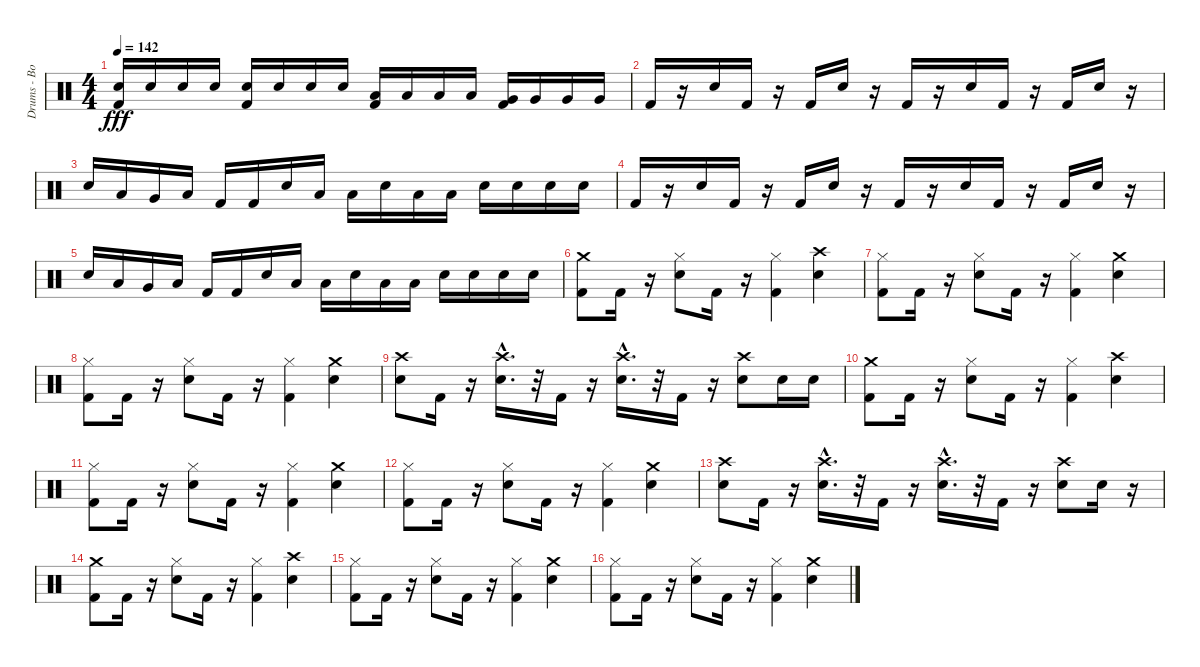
\track ("Drums - Bobby Schayer" "Drums - Bo") {instrument percussion}
\staff {score}
\articulation defaults
\ts (4 4)
\tempo 142
\clef neutral
\ks c
("Electric Snare (hit)" "Kick (hit) 2").16{dy fff} "Electric Snare (hit)".16 "Electric Snare (hit)".16 "Electric Snare (hit)".16 ("Electric Snare (hit)" "Kick (hit) 2").16 "Electric Snare (hit)".16 "Electric Snare (hit)".16 "Electric Snare (hit)".16 ("Low Tom (hit)" "Kick (hit) 2").16 "Low Tom (hit)".16 "Low Tom (hit)".16 "Low Tom (hit)".16 ("Very Low Tom (hit)" "Kick (hit) 2").16 "Very Low Tom (hit)".16 "Very Low Tom (hit)".16 "Very Low Tom (hit)".16 |
"Kick (hit) 2".16 r.16 "Electric Snare (hit)".16 "Kick (hit) 2".16 r.16 "Kick (hit) 2".16 "Electric Snare (hit)".16 r.16 "Kick (hit) 2".16 r.16 "Electric Snare (hit)".16 "Kick (hit) 2".16 r.16 "Kick (hit) 2".16 "Electric Snare (hit)".16 r.16 |
"Electric Snare (hit)".16 "Low Tom (hit)".16 "Very Low Tom (hit)".16 "Low Floor Tom (hit)".16 "Kick (hit) 2".16 "Kick (hit) 2".16 "Electric Snare (hit)".16 "Low Floor Tom (hit)".16 "Low Floor Tom (hit)".16 "Electric Snare (hit)".16 "Low Tom (hit)".16 "Low Floor Tom (hit)".16 "Electric Snare (hit)".16 "Electric Snare (hit)".16 "Electric Snare (hit)".16 "Electric Snare (hit)".16 |
"Kick (hit) 2".16 r.16 "Electric Snare (hit)".16 "Kick (hit) 2".16 r.16 "Kick (hit) 2".16 "Electric Snare (hit)".16 r.16 "Kick (hit) 2".16 r.16 "Electric Snare (hit)".16 "Kick (hit) 2".16 r.16 "Kick (hit) 2".16 "Electric Snare (hit)".16 r.16 |
"Electric Snare (hit)".16 "Low Tom (hit)".16 "Very Low Tom (hit)".16 "Low Floor Tom (hit)".16 "Kick (hit) 2".16 "Kick (hit) 2".16 "Electric Snare (hit)".16 "Low Floor Tom (hit)".16 "Low Floor Tom (hit)".16 "Electric Snare (hit)".16 "Low Tom (hit)".16 "Low Floor Tom (hit)".16 "Electric Snare (hit)".16 "Electric Snare (hit)".16 "Electric Snare (hit)".16 "Electric Snare (hit)".16 |
("Kick (hit) 2" "Crash medium (hit)").8 "Kick (hit) 2".16 r.16 ("Electric Snare (hit)" "Hi-Hat (closed)").8 "Kick (hit) 2".16 r.16 ("Kick (hit) 2" "Hi-Hat (closed)").4 ("Electric Snare (hit)" "Crash high (hit)").4 |
("Kick (hit) 2" "Hi-Hat (closed)").8 "Kick (hit) 2".16 r.16 ("Electric Snare (hit)" "Hi-Hat (closed)").8 "Kick (hit) 2".16 r.16 ("Kick (hit) 2" "Hi-Hat (closed)").4 ("Electric Snare (hit)" "Crash medium (hit)").4 |
("Kick (hit) 2" "Hi-Hat (closed)").8 "Kick (hit) 2".16 r.16 ("Electric Snare (hit)" "Hi-Hat (closed)").8 "Kick (hit) 2".16 r.16 ("Kick (hit) 2" "Hi-Hat (closed)").4 ("Electric Snare (hit)" "Crash medium (hit)").4 |
("Electric Snare (hit)" "Crash high (hit)").8 "Kick (hit) 2".16 r.16 ("Electric Snare (hit)" "Crash high (hit)"{hac}).16{d} r.32 "Kick (hit) 2".16 r.16 ("Electric Snare (hit)" "Crash high (hit)"{hac}).16{d} r.32 "Kick (hit) 2".16 r.16 ("Electric Snare (hit)" "Crash high (hit)").8 "Electric Snare (hit)".16 "Electric Snare (hit)".16 |
("Kick (hit) 2" "Crash medium (hit)").8 "Kick (hit) 2".16 r.16 ("Electric Snare (hit)" "Hi-Hat (closed)").8 "Kick (hit) 2".16 r.16 ("Kick (hit) 2" "Hi-Hat (closed)").4 ("Electric Snare (hit)" "Crash high (hit)").4 |
("Kick (hit) 2" "Hi-Hat (closed)").8 "Kick (hit) 2".16 r.16 ("Electric Snare (hit)" "Hi-Hat (closed)").8 "Kick (hit) 2".16 r.16 ("Kick (hit) 2" "Hi-Hat (closed)").4 ("Electric Snare (hit)" "Crash medium (hit)").4 |
("Kick (hit) 2" "Hi-Hat (closed)").8 "Kick (hit) 2".16 r.16 ("Electric Snare (hit)" "Hi-Hat (closed)").8 "Kick (hit) 2".16 r.16 ("Kick (hit) 2" "Hi-Hat (closed)").4 ("Electric Snare (hit)" "Crash medium (hit)").4 |
("Electric Snare (hit)" "Crash high (hit)").8 "Kick (hit) 2".16 r.16 ("Electric Snare (hit)" "Crash high (hit)"{hac}).16{d} r.32 "Kick (hit) 2".16 r.16 ("Electric Snare (hit)" "Crash high (hit)"{hac}).16{d} r.32 "Kick (hit) 2".16 r.16 ("Electric Snare (hit)" "Crash high (hit)").8 "Electric Snare (hit)".16 r.16 |
("Kick (hit) 2" "Crash medium (hit)").8 "Kick (hit) 2".16 r.16 ("Electric Snare (hit)" "Hi-Hat (closed)").8 "Kick (hit) 2".16 r.16 ("Kick (hit) 2" "Hi-Hat (closed)").4 ("Electric Snare (hit)" "Crash high (hit)").4 |
("Kick (hit) 2" "Hi-Hat (closed)").8 "Kick (hit) 2".16 r.16 ("Electric Snare (hit)" "Hi-Hat (closed)").8 "Kick (hit) 2".16 r.16 ("Kick (hit) 2" "Hi-Hat (closed)").4 ("Electric Snare (hit)" "Crash medium (hit)").4 |
("Kick (hit) 2" "Hi-Hat (closed)").8 "Kick (hit) 2".16 r.16 ("Electric Snare (hit)" "Hi-Hat (closed)").8 "Kick (hit) 2".16 r.16 ("Kick (hit) 2" "Hi-Hat (closed)").4 ("Electric Snare (hit)" "Crash medium (hit)").4
